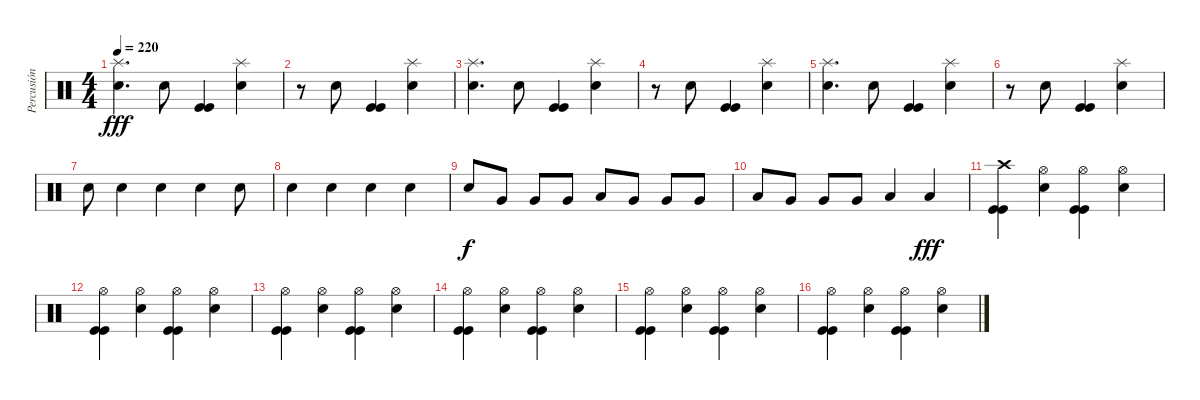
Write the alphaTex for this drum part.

\track ("Percusión" "Percusión") {instrument percussion}
\staff {score}
\articulation defaults
\ts (4 4)
\tempo 220
\clef neutral
\ks c
("Splash (hit)" "Snare (hit) 2").4{d dy fff} "Snare (hit) 2".8 ("Kick (hit)" "Kick (hit)").4 ("Splash (hit)" "Snare (hit) 2").4 |
r.8 "Snare (hit) 2".8 ("Kick (hit)" "Kick (hit)").4 ("Splash (hit)" "Snare (hit) 2").4 |
("Splash (hit)" "Snare (hit) 2").4{d} "Snare (hit) 2".8 ("Kick (hit)" "Kick (hit)").4 ("Splash (hit)" "Snare (hit) 2").4 |
r.8 "Snare (hit) 2".8 ("Kick (hit)" "Kick (hit)").4 ("Splash (hit)" "Snare (hit) 2").4 |
("Splash (hit)" "Snare (hit) 2").4{d} "Snare (hit) 2".8 ("Kick (hit)" "Kick (hit)").4 ("Splash (hit)" "Snare (hit) 2").4 |
r.8 "Snare (hit) 2".8 ("Kick (hit)" "Kick (hit)").4 ("Splash (hit)" "Snare (hit) 2").4 |
"Snare (hit) 2".8 "Snare (hit) 2".4 "Snare (hit) 2".4 "Snare (hit) 2".4 "Snare (hit) 2".8 |
"Snare (hit) 2".4 "Snare (hit) 2".4 "Snare (hit) 2".4 "Snare (hit) 2".4 |
"Snare (hit) 2".8{dy f} "Very Low Tom (hit)".8 "Very Low Tom (hit)".8 "Very Low Tom (hit)".8 "Low Tom (hit)".8 "Very Low Tom (hit)".8 "Very Low Tom (hit)".8 "Very Low Tom (hit)".8 |
"Low Tom (hit)".8 "Very Low Tom (hit)".8 "Very Low Tom (hit)".8 "Very Low Tom (hit)".8 "Low Tom (hit)".4 "Low Tom (hit)".4{dy fff} |
("Crash high (hit)" "Kick (hit)" "Kick (hit)").4 ("Hi-Hat (open)" "Snare (hit) 2").4 ("Hi-Hat (open)" "Kick (hit)" "Kick (hit)").4 ("Hi-Hat (open)" "Snare (hit) 2").4 |
("Hi-Hat (open)" "Kick (hit)" "Kick (hit)").4 ("Hi-Hat (open)" "Snare (hit) 2").4 ("Hi-Hat (open)" "Kick (hit)" "Kick (hit)").4 ("Hi-Hat (open)" "Snare (hit) 2").4 |
("Hi-Hat (open)" "Kick (hit)" "Kick (hit)").4 ("Hi-Hat (open)" "Snare (hit) 2").4 ("Hi-Hat (open)" "Kick (hit)" "Kick (hit)").4 ("Hi-Hat (open)" "Snare (hit) 2").4 |
("Hi-Hat (open)" "Kick (hit)" "Kick (hit)").4 ("Hi-Hat (open)" "Snare (hit) 2").4 ("Hi-Hat (open)" "Kick (hit)" "Kick (hit)").4 ("Hi-Hat (open)" "Snare (hit) 2").4 |
("Hi-Hat (open)" "Kick (hit)" "Kick (hit)").4 ("Hi-Hat (open)" "Snare (hit) 2").4 ("Hi-Hat (open)" "Kick (hit)" "Kick (hit)").4 ("Hi-Hat (open)" "Snare (hit) 2").4 |
("Hi-Hat (open)" "Kick (hit)" "Kick (hit)").4 ("Hi-Hat (open)" "Snare (hit) 2").4 ("Hi-Hat (open)" "Kick (hit)" "Kick (hit)").4 ("Hi-Hat (open)" "Snare (hit) 2").4
